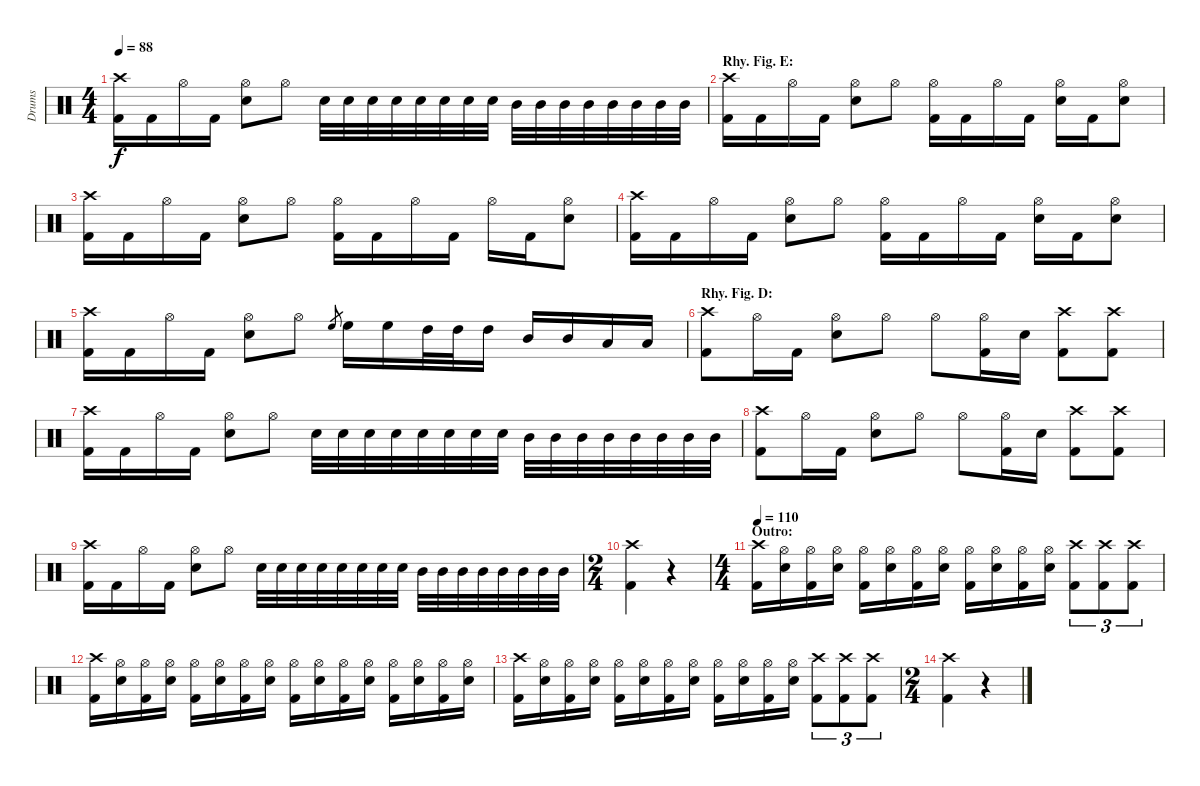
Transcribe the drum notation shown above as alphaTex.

\track ("Drums" "Drums") {instrument percussion}
\staff {score}
\articulation defaults
\ts (4 4)
\tempo 88
\clef neutral
\ks c
("Crash high (hit)" "Kick (hit) 2").16{dy f} "Kick (hit) 2".16 "Hi-Hat (open)".16 "Kick (hit) 2".16 ("Hi-Hat (open)" "Electric Snare (hit)").8 "Hi-Hat (open)".8 "Electric Snare (hit)".32 "Electric Snare (hit)".32 "Electric Snare (hit)".32 "Electric Snare (hit)".32 "Electric Snare (hit)".32 "Electric Snare (hit)".32 "Electric Snare (hit)".32 "Electric Snare (hit)".32 "Mid Tom (hit)".32 "Mid Tom (hit)".32 "Mid Tom (hit)".32 "Mid Tom (hit)".32 "Mid Tom (hit)".32 "Mid Tom (hit)".32 "Mid Tom (hit)".32 "Mid Tom (hit)".32 |
\section ("" "Rhy. Fig. E:")
("Crash high (hit)" "Kick (hit) 2").16 "Kick (hit) 2".16 "Hi-Hat (open)".16 "Kick (hit) 2".16 ("Hi-Hat (open)" "Electric Snare (hit)").8 "Hi-Hat (open)".8 ("Hi-Hat (open)" "Kick (hit) 2").16 "Kick (hit) 2".16 "Hi-Hat (open)".16 "Kick (hit) 2".16 ("Hi-Hat (open)" "Electric Snare (hit)").16 "Kick (hit) 2".16 ("Hi-Hat (open)" "Electric Snare (hit)").8 |
("Crash high (hit)" "Kick (hit) 2").16 "Kick (hit) 2".16 "Hi-Hat (open)".16 "Kick (hit) 2".16 ("Hi-Hat (open)" "Electric Snare (hit)").8 "Hi-Hat (open)".8 ("Hi-Hat (open)" "Kick (hit) 2").16 "Kick (hit) 2".16 "Hi-Hat (open)".16 "Kick (hit) 2".16 "Hi-Hat (open)".16 "Kick (hit) 2".16 ("Hi-Hat (open)" "Electric Snare (hit)").8 |
("Crash high (hit)" "Kick (hit) 2").16 "Kick (hit) 2".16 "Hi-Hat (open)".16 "Kick (hit) 2".16 ("Hi-Hat (open)" "Electric Snare (hit)").8 "Hi-Hat (open)".8 ("Hi-Hat (open)" "Kick (hit) 2").16 "Kick (hit) 2".16 "Hi-Hat (open)".16 "Kick (hit) 2".16 ("Hi-Hat (open)" "Electric Snare (hit)").16 "Kick (hit) 2".16 ("Hi-Hat (open)" "Electric Snare (hit)").8 |
("Crash high (hit)" "Kick (hit) 2").16 "Kick (hit) 2".16 "Hi-Hat (open)".16 "Kick (hit) 2".16 ("Hi-Hat (open)" "Electric Snare (hit)").8 "Hi-Hat (open)".8 "High Floor Tom (hit)".8{gr} "High Floor Tom (hit)".16 "High Floor Tom (hit)".16 "High Tom (hit)".32 "High Tom (hit)".32 "High Tom (hit)".16 "Mid Tom (hit)".16 "Mid Tom (hit)".16 "Low Tom (hit)".16 "Low Tom (hit)".16 |
\section ("" "Rhy. Fig. D:")
("Crash high (hit)" "Kick (hit) 2").8 "Hi-Hat (open)".16 "Kick (hit) 2".16 ("Hi-Hat (open)" "Electric Snare (hit)").8 "Hi-Hat (open)".8 "Hi-Hat (open)".8 ("Hi-Hat (open)" "Kick (hit) 2").16 "Electric Snare (hit)".16 ("Crash high (hit)" "Kick (hit) 2").8 ("Crash high (hit)" "Kick (hit) 2").8 |
("Crash high (hit)" "Kick (hit) 2").16 "Kick (hit) 2".16 "Hi-Hat (open)".16 "Kick (hit) 2".16 ("Hi-Hat (open)" "Electric Snare (hit)").8 "Hi-Hat (open)".8 "Electric Snare (hit)".32 "Electric Snare (hit)".32 "Electric Snare (hit)".32 "Electric Snare (hit)".32 "Electric Snare (hit)".32 "Electric Snare (hit)".32 "Electric Snare (hit)".32 "Electric Snare (hit)".32 "Mid Tom (hit)".32 "Mid Tom (hit)".32 "Mid Tom (hit)".32 "Mid Tom (hit)".32 "Mid Tom (hit)".32 "Mid Tom (hit)".32 "Mid Tom (hit)".32 "Mid Tom (hit)".32 |
("Crash high (hit)" "Kick (hit) 2").8 "Hi-Hat (open)".16 "Kick (hit) 2".16 ("Hi-Hat (open)" "Electric Snare (hit)").8 "Hi-Hat (open)".8 "Hi-Hat (open)".8 ("Hi-Hat (open)" "Kick (hit) 2").16 "Electric Snare (hit)".16 ("Crash high (hit)" "Kick (hit) 2").8 ("Crash high (hit)" "Kick (hit) 2").8 |
("Crash high (hit)" "Kick (hit) 2").16 "Kick (hit) 2".16 "Hi-Hat (open)".16 "Kick (hit) 2".16 ("Hi-Hat (open)" "Electric Snare (hit)").8 "Hi-Hat (open)".8 "Electric Snare (hit)".32 "Electric Snare (hit)".32 "Electric Snare (hit)".32 "Electric Snare (hit)".32 "Electric Snare (hit)".32 "Electric Snare (hit)".32 "Electric Snare (hit)".32 "Electric Snare (hit)".32 "Mid Tom (hit)".32 "Mid Tom (hit)".32 "Mid Tom (hit)".32 "Mid Tom (hit)".32 "Mid Tom (hit)".32 "Mid Tom (hit)".32 "Mid Tom (hit)".32 "Mid Tom (hit)".32 |
\ts (2 4)
("Crash high (hit)" "Kick (hit) 2").4 r.4 |
\ts (4 4)
\section ("" "Outro:")
\tempo 110
("Crash high (hit)" "Kick (hit) 2").16 ("Hi-Hat (open)" "Electric Snare (hit)").16 ("Hi-Hat (open)" "Kick (hit) 2").16 ("Hi-Hat (open)" "Electric Snare (hit)").16 ("Hi-Hat (open)" "Kick (hit) 2").16 ("Hi-Hat (open)" "Electric Snare (hit)").16 ("Hi-Hat (open)" "Kick (hit) 2").16 ("Hi-Hat (open)" "Electric Snare (hit)").16 ("Hi-Hat (open)" "Kick (hit) 2").16 ("Hi-Hat (open)" "Electric Snare (hit)").16 ("Hi-Hat (open)" "Kick (hit) 2").16 ("Hi-Hat (open)" "Electric Snare (hit)").16 ("Crash high (hit)" "Kick (hit) 2").8{tu (3 2)} ("Crash high (hit)" "Kick (hit) 2").8{tu (3 2)} ("Crash high (hit)" "Kick (hit) 2").8{tu (3 2)} |
("Crash high (hit)" "Kick (hit) 2").16 ("Hi-Hat (open)" "Electric Snare (hit)").16 ("Hi-Hat (open)" "Kick (hit) 2").16 ("Hi-Hat (open)" "Electric Snare (hit)").16 ("Hi-Hat (open)" "Kick (hit) 2").16 ("Hi-Hat (open)" "Electric Snare (hit)").16 ("Hi-Hat (open)" "Kick (hit) 2").16 ("Hi-Hat (open)" "Electric Snare (hit)").16 ("Hi-Hat (open)" "Kick (hit) 2").16 ("Hi-Hat (open)" "Electric Snare (hit)").16 ("Hi-Hat (open)" "Kick (hit) 2").16 ("Hi-Hat (open)" "Electric Snare (hit)").16 ("Hi-Hat (open)" "Kick (hit) 2").16 ("Hi-Hat (open)" "Electric Snare (hit)").16 ("Hi-Hat (open)" "Kick (hit) 2").16 ("Hi-Hat (open)" "Electric Snare (hit)").16 |
("Crash high (hit)" "Kick (hit) 2").16 ("Hi-Hat (open)" "Electric Snare (hit)").16 ("Hi-Hat (open)" "Kick (hit) 2").16 ("Hi-Hat (open)" "Electric Snare (hit)").16 ("Hi-Hat (open)" "Kick (hit) 2").16 ("Hi-Hat (open)" "Electric Snare (hit)").16 ("Hi-Hat (open)" "Kick (hit) 2").16 ("Hi-Hat (open)" "Electric Snare (hit)").16 ("Hi-Hat (open)" "Kick (hit) 2").16 ("Hi-Hat (open)" "Electric Snare (hit)").16 ("Hi-Hat (open)" "Kick (hit) 2").16 ("Hi-Hat (open)" "Electric Snare (hit)").16 ("Crash high (hit)" "Kick (hit) 2").8{tu (3 2)} ("Crash high (hit)" "Kick (hit) 2").8{tu (3 2)} ("Crash high (hit)" "Kick (hit) 2").8{tu (3 2)} |
\ts (2 4)
("Crash high (hit)" "Kick (hit) 2").4 r.4
